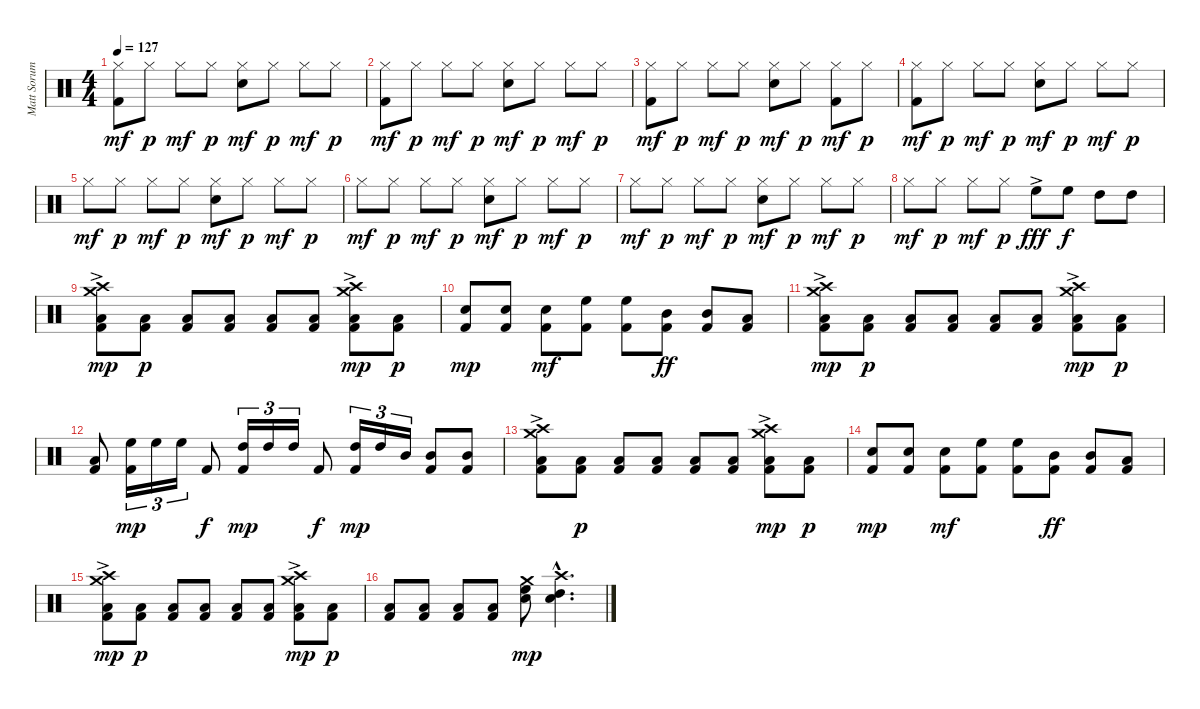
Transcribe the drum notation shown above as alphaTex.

\track ("Matt Sorum" "Matt Sorum") {instrument percussion}
\staff {score}
\articulation defaults
\ts (4 4)
\tempo 127
\clef neutral
\ks c
("Kick (hit) 2" "Hi-Hat (closed)").8{dy mf} "Hi-Hat (closed)".8{dy p} "Hi-Hat (closed)".8{dy mf} "Hi-Hat (closed)".8{dy p} ("Snare (hit) 2" "Hi-Hat (closed)").8{dy mf} "Hi-Hat (closed)".8{dy p} "Hi-Hat (closed)".8{dy mf} "Hi-Hat (closed)".8{dy p} |
("Kick (hit) 2" "Hi-Hat (closed)").8{dy mf} "Hi-Hat (closed)".8{dy p} "Hi-Hat (closed)".8{dy mf} "Hi-Hat (closed)".8{dy p} ("Snare (hit) 2" "Hi-Hat (closed)").8{dy mf} "Hi-Hat (closed)".8{dy p} "Hi-Hat (closed)".8{dy mf} "Hi-Hat (closed)".8{dy p} |
("Kick (hit) 2" "Hi-Hat (closed)").8{dy mf} "Hi-Hat (closed)".8{dy p} "Hi-Hat (closed)".8{dy mf} "Hi-Hat (closed)".8{dy p} ("Snare (hit) 2" "Hi-Hat (closed)").8{dy mf} "Hi-Hat (closed)".8{dy p} ("Kick (hit) 2" "Hi-Hat (closed)").8{dy mf} "Hi-Hat (closed)".8{dy p} |
("Kick (hit) 2" "Hi-Hat (closed)").8{dy mf} "Hi-Hat (closed)".8{dy p} "Hi-Hat (closed)".8{dy mf} "Hi-Hat (closed)".8{dy p} ("Snare (hit) 2" "Hi-Hat (closed)").8{dy mf} "Hi-Hat (closed)".8{dy p} "Hi-Hat (closed)".8{dy mf} "Hi-Hat (closed)".8{dy p} |
"Hi-Hat (closed)".8{dy mf} "Hi-Hat (closed)".8{dy p} "Hi-Hat (closed)".8{dy mf} "Hi-Hat (closed)".8{dy p} ("Snare (hit) 2" "Hi-Hat (closed)").8{dy mf} "Hi-Hat (closed)".8{dy p} "Hi-Hat (closed)".8{dy mf} "Hi-Hat (closed)".8{dy p} |
"Hi-Hat (closed)".8{dy mf} "Hi-Hat (closed)".8{dy p} "Hi-Hat (closed)".8{dy mf} "Hi-Hat (closed)".8{dy p} ("Snare (hit) 2" "Hi-Hat (closed)").8{dy mf} "Hi-Hat (closed)".8{dy p} "Hi-Hat (closed)".8{dy mf} "Hi-Hat (closed)".8{dy p} |
"Hi-Hat (closed)".8{dy mf} "Hi-Hat (closed)".8{dy p} "Hi-Hat (closed)".8{dy mf} "Hi-Hat (closed)".8{dy p} ("Snare (hit) 2" "Hi-Hat (closed)").8{dy mf} "Hi-Hat (closed)".8{dy p} "Hi-Hat (closed)".8{dy mf} "Hi-Hat (closed)".8{dy p} |
"Hi-Hat (closed)".8{dy mf} "Hi-Hat (closed)".8{dy p} "Hi-Hat (closed)".8{dy mf} "Hi-Hat (closed)".8{dy p} "High Floor Tom (hit)"{ac}.8{dy fff volume 16} "High Floor Tom (hit)".8{dy f} "High Tom (hit)".8 "High Tom (hit)".8 |
("Kick (hit) 2"{ac} "Crash high (hit)" "Low Tom (hit)" "Crash medium (hit)").8{dy mp} ("Kick (hit) 2" "Low Tom (hit)").8{dy p} ("Kick (hit) 2" "Low Tom (hit)").8 ("Kick (hit) 2" "Low Tom (hit)").8 ("Kick (hit) 2" "Low Tom (hit)").8 ("Kick (hit) 2" "Low Tom (hit)").8 ("Kick (hit) 2"{ac} "Crash high (hit)" "Low Tom (hit)" "Crash medium (hit)").8{dy mp} ("Kick (hit) 2" "Low Tom (hit)").8{dy p} |
("Kick (hit) 2" "Snare (hit) 2").8{dy mp} ("Kick (hit) 2" "Snare (hit) 2").8 ("Kick (hit) 2" "Snare (hit) 2").8{dy mf} ("Kick (hit) 2" "High Floor Tom (hit)").8 ("Kick (hit) 2" "High Floor Tom (hit)").8 ("Kick (hit) 2" "Mid Tom (hit)").8{dy ff} ("Kick (hit) 2" "Mid Tom (hit)").8 ("Kick (hit) 2" "Low Tom (hit)").8 |
("Kick (hit) 2"{ac} "Crash high (hit)" "Low Tom (hit)" "Crash medium (hit)").8{dy mp} ("Kick (hit) 2" "Low Tom (hit)").8{dy p} ("Kick (hit) 2" "Low Tom (hit)").8 ("Kick (hit) 2" "Low Tom (hit)").8 ("Kick (hit) 2" "Low Tom (hit)").8 ("Kick (hit) 2" "Low Tom (hit)").8 ("Kick (hit) 2"{ac} "Crash high (hit)" "Low Tom (hit)" "Crash medium (hit)").8{dy mp} ("Kick (hit) 2" "Low Tom (hit)").8{dy p} |
("Kick (hit) 2" "Low Tom (hit)").8 ("Kick (hit) 2" "High Floor Tom (hit)").16{tu (3 2) dy mp} "High Floor Tom (hit)".16{tu (3 2)} "High Floor Tom (hit)".16{tu (3 2)} "Kick (hit) 2".8{dy f} ("Kick (hit) 2" "High Tom (hit)").16{tu (3 2) dy mp} "High Tom (hit)".16{tu (3 2)} "High Tom (hit)".16{tu (3 2)} "Kick (hit) 2".8{dy f} ("Kick (hit) 2" "High Tom (hit)").16{tu (3 2) dy mp} "High Tom (hit)".16{tu (3 2)} "Mid Tom (hit)".16{tu (3 2)} ("Kick (hit) 2" "Mid Tom (hit)").8 ("Kick (hit) 2" "Mid Tom (hit)").8 |
("Kick (hit) 2"{ac} "Crash high (hit)" "Low Tom (hit)" "Crash medium (hit)").8 ("Kick (hit) 2" "Low Tom (hit)").8{dy p} ("Kick (hit) 2" "Low Tom (hit)").8 ("Kick (hit) 2" "Low Tom (hit)").8 ("Kick (hit) 2" "Low Tom (hit)").8 ("Kick (hit) 2" "Low Tom (hit)").8 ("Kick (hit) 2"{ac} "Crash high (hit)" "Low Tom (hit)" "Crash medium (hit)").8{dy mp} ("Kick (hit) 2" "Low Tom (hit)").8{dy p} |
("Kick (hit) 2" "Snare (hit) 2").8{dy mp} ("Kick (hit) 2" "Snare (hit) 2").8 ("Kick (hit) 2" "Snare (hit) 2").8{dy mf} ("Kick (hit) 2" "High Floor Tom (hit)").8 ("Kick (hit) 2" "High Floor Tom (hit)").8 ("Kick (hit) 2" "Mid Tom (hit)").8{dy ff} ("Kick (hit) 2" "Mid Tom (hit)").8 ("Kick (hit) 2" "Low Tom (hit)").8 |
("Kick (hit) 2"{ac} "Crash high (hit)" "Low Tom (hit)" "Crash medium (hit)").8{dy mp} ("Kick (hit) 2" "Low Tom (hit)").8{dy p} ("Kick (hit) 2" "Low Tom (hit)").8 ("Kick (hit) 2" "Low Tom (hit)").8 ("Kick (hit) 2" "Low Tom (hit)").8 ("Kick (hit) 2" "Low Tom (hit)").8 ("Kick (hit) 2"{ac} "Crash high (hit)" "Low Tom (hit)" "Crash medium (hit)").8{dy mp} ("Kick (hit) 2" "Low Tom (hit)").8{dy p} |
("Kick (hit) 2" "Low Tom (hit)").8 ("Kick (hit) 2" "Low Tom (hit)").8 ("Kick (hit) 2" "Low Tom (hit)").8 ("Kick (hit) 2" "Low Tom (hit)").8 ("Snare (hit) 2" "Crash medium (hit)" "High Floor Tom (hit)").8{dy mp} ("Snare (hit) 2"{hac} "Crash high (hit)"{hac} "High Tom (hit)"{hac}).4{d}
